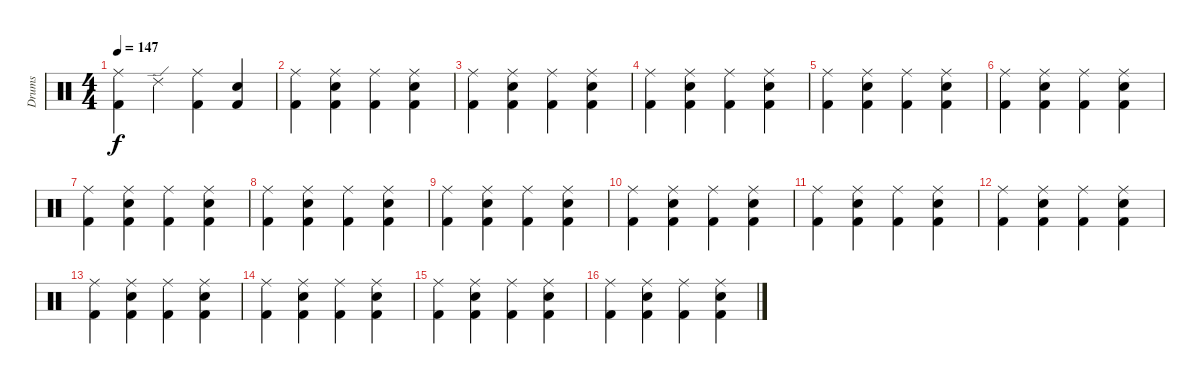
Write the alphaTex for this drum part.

\track ("Drums" "Drums") {instrument percussion}
\staff {score}
\articulation defaults
\ts (4 4)
\tempo 147
\clef neutral
\ks c
("Ride (middle)" "Kick (hit) 2").4{dy f} "Ride (edge) 2".4 ("Ride (middle)" "Kick (hit) 2").4 ("Electric Snare (hit)" "Kick (hit) 2").4 |
("Ride (middle)" "Kick (hit) 2").4 ("Ride (middle)" "Electric Snare (hit)" "Kick (hit) 2").4 ("Ride (middle)" "Kick (hit) 2").4 ("Ride (middle)" "Electric Snare (hit)" "Kick (hit) 2").4 |
("Ride (middle)" "Kick (hit) 2").4 ("Ride (middle)" "Electric Snare (hit)" "Kick (hit) 2").4 ("Ride (middle)" "Kick (hit) 2").4 ("Ride (middle)" "Electric Snare (hit)" "Kick (hit) 2").4 |
("Ride (middle)" "Kick (hit) 2").4 ("Ride (middle)" "Electric Snare (hit)" "Kick (hit) 2").4 ("Ride (middle)" "Kick (hit) 2").4 ("Ride (middle)" "Electric Snare (hit)" "Kick (hit) 2").4 |
("Ride (middle)" "Kick (hit) 2").4 ("Ride (middle)" "Electric Snare (hit)" "Kick (hit) 2").4 ("Ride (middle)" "Kick (hit) 2").4 ("Ride (middle)" "Electric Snare (hit)" "Kick (hit) 2").4 |
("Ride (middle)" "Kick (hit) 2").4 ("Ride (middle)" "Electric Snare (hit)" "Kick (hit) 2").4 ("Ride (middle)" "Kick (hit) 2").4 ("Ride (middle)" "Electric Snare (hit)" "Kick (hit) 2").4 |
("Ride (middle)" "Kick (hit) 2").4 ("Ride (middle)" "Electric Snare (hit)" "Kick (hit) 2").4 ("Ride (middle)" "Kick (hit) 2").4 ("Ride (middle)" "Electric Snare (hit)" "Kick (hit) 2").4 |
("Ride (middle)" "Kick (hit) 2").4 ("Ride (middle)" "Electric Snare (hit)" "Kick (hit) 2").4 ("Ride (middle)" "Kick (hit) 2").4 ("Ride (middle)" "Electric Snare (hit)" "Kick (hit) 2").4 |
("Ride (middle)" "Kick (hit) 2").4 ("Ride (middle)" "Electric Snare (hit)" "Kick (hit) 2").4 ("Ride (middle)" "Kick (hit) 2").4 ("Ride (middle)" "Electric Snare (hit)" "Kick (hit) 2").4 |
("Ride (middle)" "Kick (hit) 2").4 ("Ride (middle)" "Electric Snare (hit)" "Kick (hit) 2").4 ("Ride (middle)" "Kick (hit) 2").4 ("Ride (middle)" "Electric Snare (hit)" "Kick (hit) 2").4 |
("Ride (middle)" "Kick (hit) 2").4 ("Ride (middle)" "Electric Snare (hit)" "Kick (hit) 2").4 ("Ride (middle)" "Kick (hit) 2").4 ("Ride (middle)" "Electric Snare (hit)" "Kick (hit) 2").4 |
("Ride (middle)" "Kick (hit) 2").4 ("Ride (middle)" "Electric Snare (hit)" "Kick (hit) 2").4 ("Ride (middle)" "Kick (hit) 2").4 ("Ride (middle)" "Electric Snare (hit)" "Kick (hit) 2").4 |
("Ride (middle)" "Kick (hit) 2").4 ("Ride (middle)" "Electric Snare (hit)" "Kick (hit) 2").4 ("Ride (middle)" "Kick (hit) 2").4 ("Ride (middle)" "Electric Snare (hit)" "Kick (hit) 2").4 |
("Ride (middle)" "Kick (hit) 2").4 ("Ride (middle)" "Electric Snare (hit)" "Kick (hit) 2").4 ("Ride (middle)" "Kick (hit) 2").4 ("Ride (middle)" "Electric Snare (hit)" "Kick (hit) 2").4 |
("Ride (middle)" "Kick (hit) 2").4 ("Ride (middle)" "Electric Snare (hit)" "Kick (hit) 2").4 ("Ride (middle)" "Kick (hit) 2").4 ("Ride (middle)" "Electric Snare (hit)" "Kick (hit) 2").4 |
("Ride (middle)" "Kick (hit) 2").4 ("Ride (middle)" "Electric Snare (hit)" "Kick (hit) 2").4 ("Ride (middle)" "Kick (hit) 2").4 ("Ride (middle)" "Electric Snare (hit)" "Kick (hit) 2").4
